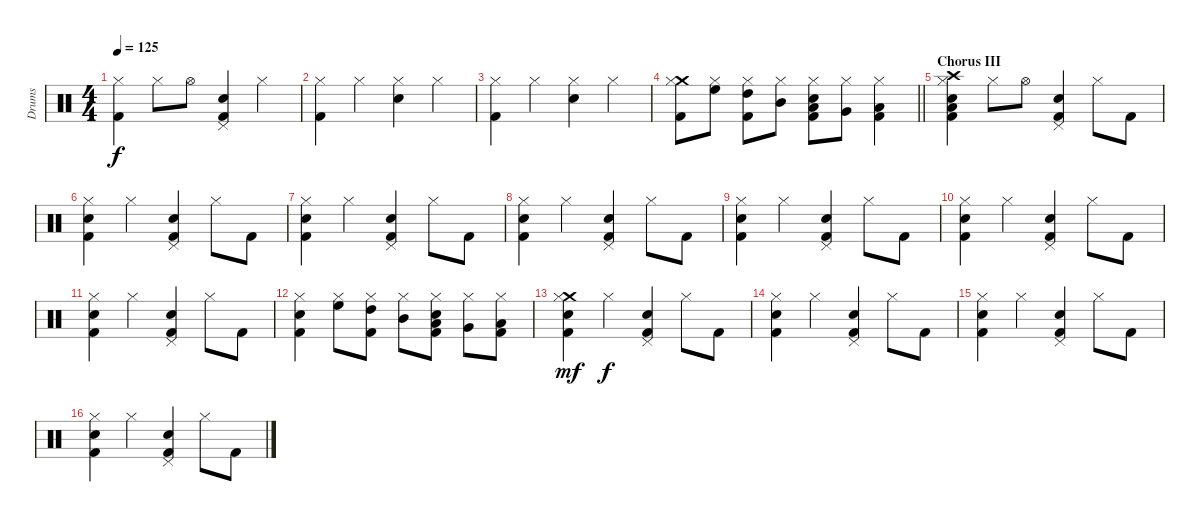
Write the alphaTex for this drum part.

\track ("Drums" "Drums") {instrument percussion}
\staff {score}
\articulation defaults
\ts (4 4)
\tempo 125
\clef neutral
\ks c
("Hi-Hat (closed)" "Kick (hit) 2").4{dy f} "Hi-Hat (closed)".8 "Hi-Hat (open)".8 ("Pedal Hi-Hat (hit)" "Snare (hit) 2" "Kick (hit) 2").4 "Hi-Hat (closed)".4 |
("Hi-Hat (closed)" "Kick (hit) 2").4 "Hi-Hat (closed)".4 ("Hi-Hat (closed)" "Snare (hit) 2").4 "Hi-Hat (closed)".4 |
("Hi-Hat (closed)" "Kick (hit) 2").4 "Hi-Hat (closed)".4 ("Hi-Hat (closed)" "Snare (hit) 2").4 "Hi-Hat (closed)".4 |
\barLineRight lightlight
("Crash medium (hit)" "Hi-Hat (closed)" "Kick (hit) 2").8 ("Hi-Hat (closed)" "High Floor Tom (hit)").8 ("Hi-Hat (closed)" "High Tom (hit)" "Kick (hit) 2").8 ("Hi-Hat (closed)" "Mid Tom (hit)").8 ("Hi-Hat (closed)" "Snare (hit) 2" "Low Tom (hit)" "Kick (hit) 2").8 ("Hi-Hat (closed)" "Very Low Tom (hit)").8 ("Hi-Hat (closed)" "Low Floor Tom (hit)" "Kick (hit) 2").4 |
\section ("" "Chorus III")
("Crash high (hit)" "Hi-Hat (closed)" "Snare (hit) 2" "Low Floor Tom (hit)" "Kick (hit) 2").4 "Hi-Hat (closed)".8 "Hi-Hat (open)".8 ("Pedal Hi-Hat (hit)" "Snare (hit) 2" "Kick (hit) 2").4 "Hi-Hat (closed)".8 "Kick (hit) 2".8 |
("Hi-Hat (closed)" "Snare (hit) 2" "Kick (hit) 2").4 "Hi-Hat (closed)".4 ("Pedal Hi-Hat (hit)" "Snare (hit) 2" "Kick (hit) 2").4 "Hi-Hat (closed)".8 "Kick (hit) 2".8 |
("Hi-Hat (closed)" "Snare (hit) 2" "Kick (hit) 2").4 "Hi-Hat (closed)".4 ("Pedal Hi-Hat (hit)" "Snare (hit) 2" "Kick (hit) 2").4 "Hi-Hat (closed)".8 "Kick (hit) 2".8 |
("Hi-Hat (closed)" "Snare (hit) 2" "Kick (hit) 2").4 "Hi-Hat (closed)".4 ("Pedal Hi-Hat (hit)" "Snare (hit) 2" "Kick (hit) 2").4 "Hi-Hat (closed)".8 "Kick (hit) 2".8 |
("Hi-Hat (closed)" "Snare (hit) 2" "Kick (hit) 2").4 "Hi-Hat (closed)".4 ("Pedal Hi-Hat (hit)" "Snare (hit) 2" "Kick (hit) 2").4 "Hi-Hat (closed)".8 "Kick (hit) 2".8 |
("Hi-Hat (closed)" "Snare (hit) 2" "Kick (hit) 2").4 "Hi-Hat (closed)".4 ("Pedal Hi-Hat (hit)" "Snare (hit) 2" "Kick (hit) 2").4 "Hi-Hat (closed)".8 "Kick (hit) 2".8 |
("Hi-Hat (closed)" "Snare (hit) 2" "Kick (hit) 2").4 "Hi-Hat (closed)".4 ("Pedal Hi-Hat (hit)" "Snare (hit) 2" "Kick (hit) 2").4 "Hi-Hat (closed)".8 "Kick (hit) 2".8 |
("Hi-Hat (closed)" "Snare (hit) 2" "Kick (hit) 2").4 ("Hi-Hat (closed)" "High Floor Tom (hit)").8 ("Hi-Hat (closed)" "High Tom (hit)" "Kick (hit) 2").8 ("Hi-Hat (closed)" "Mid Tom (hit)").8 ("Hi-Hat (closed)" "Snare (hit) 2" "Low Tom (hit)" "Kick (hit) 2").8 ("Hi-Hat (closed)" "Very Low Tom (hit)").8 ("Hi-Hat (closed)" "Low Floor Tom (hit)" "Kick (hit) 2").8 |
("Crash medium (hit)" "Hi-Hat (closed)" "Snare (hit) 2" "Kick (hit) 2").4{dy mf} "Hi-Hat (closed)".4{dy f} ("Pedal Hi-Hat (hit)" "Snare (hit) 2" "Kick (hit) 2").4 "Hi-Hat (closed)".8 "Kick (hit) 2".8 |
("Hi-Hat (closed)" "Snare (hit) 2" "Kick (hit) 2").4 "Hi-Hat (closed)".4 ("Pedal Hi-Hat (hit)" "Snare (hit) 2" "Kick (hit) 2").4 "Hi-Hat (closed)".8 "Kick (hit) 2".8 |
("Hi-Hat (closed)" "Snare (hit) 2" "Kick (hit) 2").4 "Hi-Hat (closed)".4 ("Pedal Hi-Hat (hit)" "Snare (hit) 2" "Kick (hit) 2").4 "Hi-Hat (closed)".8 "Kick (hit) 2".8 |
("Hi-Hat (closed)" "Snare (hit) 2" "Kick (hit) 2").4 "Hi-Hat (closed)".4 ("Pedal Hi-Hat (hit)" "Snare (hit) 2" "Kick (hit) 2").4 "Hi-Hat (closed)".8 "Kick (hit) 2".8
